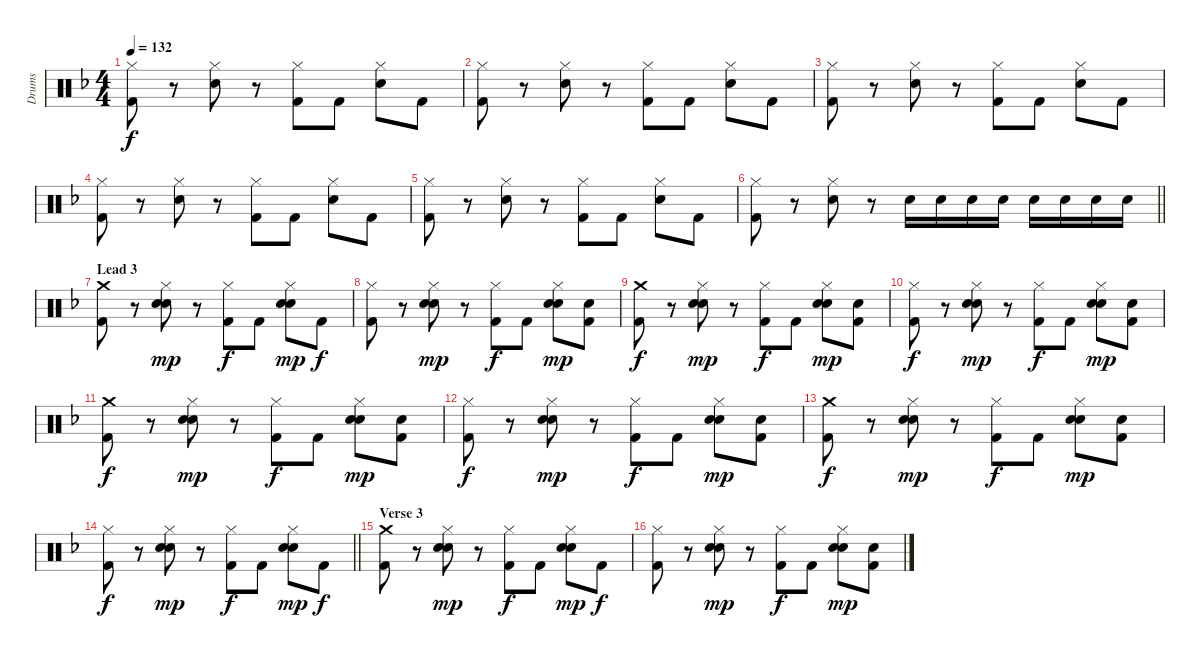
\track ("Drums" "Drums") {instrument percussion}
\staff {score}
\articulation defaults
\ts (4 4)
\tempo 132
\clef neutral
\ks f
("Hi-Hat (closed)" "Kick (hit) 2").8{dy f} r.8 ("Hi-Hat (closed)" "Snare (hit) 2").8 r.8 ("Hi-Hat (closed)" "Kick (hit) 2").8 "Kick (hit) 2".8 ("Hi-Hat (closed)" "Snare (hit) 2").8 "Kick (hit) 2".8 |
("Hi-Hat (closed)" "Kick (hit) 2").8 r.8 ("Hi-Hat (closed)" "Snare (hit) 2").8 r.8 ("Hi-Hat (closed)" "Kick (hit) 2").8 "Kick (hit) 2".8 ("Hi-Hat (closed)" "Snare (hit) 2").8 "Kick (hit) 2".8 |
("Hi-Hat (closed)" "Kick (hit) 2").8 r.8 ("Hi-Hat (closed)" "Snare (hit) 2").8 r.8 ("Hi-Hat (closed)" "Kick (hit) 2").8 "Kick (hit) 2".8 ("Hi-Hat (closed)" "Snare (hit) 2").8 "Kick (hit) 2".8 |
("Hi-Hat (closed)" "Kick (hit) 2").8 r.8 ("Hi-Hat (closed)" "Snare (hit) 2").8 r.8 ("Hi-Hat (closed)" "Kick (hit) 2").8 "Kick (hit) 2".8 ("Hi-Hat (closed)" "Snare (hit) 2").8 "Kick (hit) 2".8 |
("Hi-Hat (closed)" "Kick (hit) 2").8 r.8 ("Hi-Hat (closed)" "Snare (hit) 2").8 r.8 ("Hi-Hat (closed)" "Kick (hit) 2").8 "Kick (hit) 2".8 ("Hi-Hat (closed)" "Snare (hit) 2").8 "Kick (hit) 2".8 |
\barLineRight lightlight
("Hi-Hat (closed)" "Kick (hit) 2").8 r.8 ("Hi-Hat (closed)" "Snare (hit) 2").8 r.8 "Snare (hit) 2".16 "Snare (hit) 2".16 "Snare (hit) 2".16 "Snare (hit) 2".16 "Snare (hit) 2".16 "Snare (hit) 2".16 "Snare (hit) 2".16 "Snare (hit) 2".16 |
\section ("" "Lead 3")
("Crash medium (hit)" "Kick (hit) 2").8 r.8 ("Hi-Hat (closed)" "Hand Clap (hit)" "Snare (hit) 2").8{dy mp} r.8 ("Hi-Hat (closed)" "Kick (hit) 2").8{dy f} "Kick (hit) 2".8 ("Hi-Hat (closed)" "Hand Clap (hit)" "Snare (hit) 2").8{dy mp} "Kick (hit) 2".8{dy f} |
("Hi-Hat (closed)" "Kick (hit) 2").8 r.8 ("Hi-Hat (closed)" "Hand Clap (hit)" "Snare (hit) 2").8{dy mp} r.8 ("Hi-Hat (closed)" "Kick (hit) 2").8{dy f} "Kick (hit) 2".8 ("Hi-Hat (closed)" "Hand Clap (hit)" "Snare (hit) 2").8{dy mp} ("Hand Clap (hit)" "Kick (hit) 2").8 |
("Crash medium (hit)" "Kick (hit) 2").8{dy f} r.8 ("Hi-Hat (closed)" "Hand Clap (hit)" "Snare (hit) 2").8{dy mp} r.8 ("Hi-Hat (closed)" "Kick (hit) 2").8{dy f} "Kick (hit) 2".8 ("Hi-Hat (closed)" "Hand Clap (hit)" "Snare (hit) 2").8{dy mp} ("Hand Clap (hit)" "Kick (hit) 2").8 |
("Hi-Hat (closed)" "Kick (hit) 2").8{dy f} r.8 ("Hi-Hat (closed)" "Hand Clap (hit)" "Snare (hit) 2").8{dy mp} r.8 ("Hi-Hat (closed)" "Kick (hit) 2").8{dy f} "Kick (hit) 2".8 ("Hi-Hat (closed)" "Hand Clap (hit)" "Snare (hit) 2").8{dy mp} ("Hand Clap (hit)" "Kick (hit) 2").8 |
("Crash medium (hit)" "Kick (hit) 2").8{dy f} r.8 ("Hi-Hat (closed)" "Hand Clap (hit)" "Snare (hit) 2").8{dy mp} r.8 ("Hi-Hat (closed)" "Kick (hit) 2").8{dy f} "Kick (hit) 2".8 ("Hi-Hat (closed)" "Hand Clap (hit)" "Snare (hit) 2").8{dy mp} ("Hand Clap (hit)" "Kick (hit) 2").8 |
("Hi-Hat (closed)" "Kick (hit) 2").8{dy f} r.8 ("Hi-Hat (closed)" "Hand Clap (hit)" "Snare (hit) 2").8{dy mp} r.8 ("Hi-Hat (closed)" "Kick (hit) 2").8{dy f} "Kick (hit) 2".8 ("Hi-Hat (closed)" "Hand Clap (hit)" "Snare (hit) 2").8{dy mp} ("Hand Clap (hit)" "Kick (hit) 2").8 |
("Crash medium (hit)" "Kick (hit) 2").8{dy f} r.8 ("Hi-Hat (closed)" "Hand Clap (hit)" "Snare (hit) 2").8{dy mp} r.8 ("Hi-Hat (closed)" "Kick (hit) 2").8{dy f} "Kick (hit) 2".8 ("Hi-Hat (closed)" "Hand Clap (hit)" "Snare (hit) 2").8{dy mp} ("Hand Clap (hit)" "Kick (hit) 2").8 |
\barLineRight lightlight
("Hi-Hat (closed)" "Kick (hit) 2").8{dy f} r.8 ("Hi-Hat (closed)" "Hand Clap (hit)" "Snare (hit) 2").8{dy mp} r.8 ("Hi-Hat (closed)" "Kick (hit) 2").8{dy f} "Kick (hit) 2".8 ("Hi-Hat (closed)" "Hand Clap (hit)" "Snare (hit) 2").8{dy mp} "Kick (hit) 2".8{dy f} |
\section ("" "Verse 3")
("Crash medium (hit)" "Kick (hit) 2").8 r.8 ("Hi-Hat (closed)" "Hand Clap (hit)" "Snare (hit) 2").8{dy mp} r.8 ("Hi-Hat (closed)" "Kick (hit) 2").8{dy f} "Kick (hit) 2".8 ("Hi-Hat (closed)" "Hand Clap (hit)" "Snare (hit) 2").8{dy mp} "Kick (hit) 2".8{dy f} |
("Hi-Hat (closed)" "Kick (hit) 2").8 r.8 ("Hi-Hat (closed)" "Hand Clap (hit)" "Snare (hit) 2").8{dy mp} r.8 ("Hi-Hat (closed)" "Kick (hit) 2").8{dy f} "Kick (hit) 2".8 ("Hi-Hat (closed)" "Hand Clap (hit)" "Snare (hit) 2").8{dy mp} ("Hand Clap (hit)" "Kick (hit) 2").8
